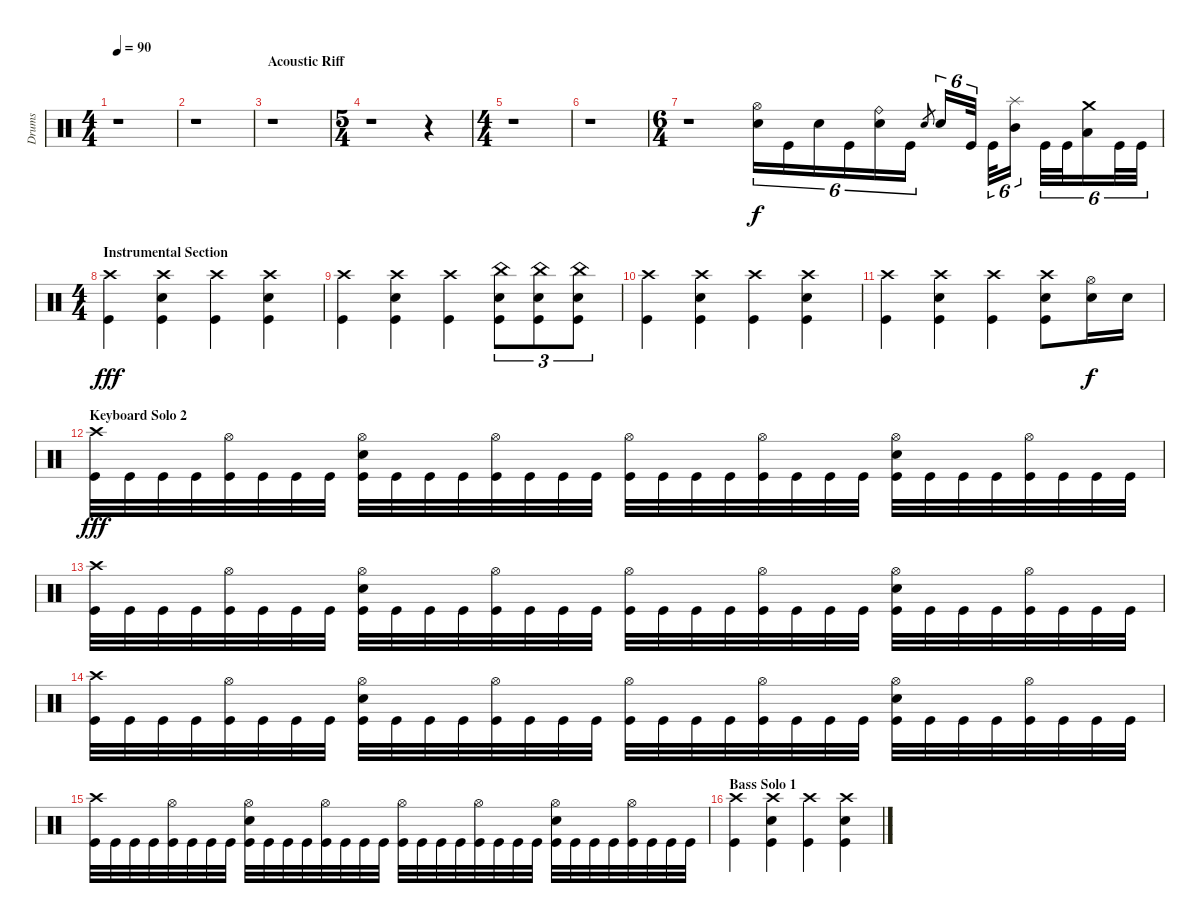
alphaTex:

\track ("Drums" "Drums") {instrument percussion}
\staff {score}
\articulation defaults
\ts (4 4)
\tempo 90
\clef neutral
\ks c
r.1{dy fff} |
r.1 |
\section ("" "Acoustic Riff")
r.1 |
\ts (5 4)
r.1 r.4 |
\ts (4 4)
r.1 |
r.1 |
\ts (6 4)
r.1 ("Hi-Hat (open)" "Electric Snare (hit)").16{tu (6 4) dy f volume 14} "Kick (hit)".16{tu (6 4)} "Electric Snare (hit)".16{tu (6 4)} "Kick (hit)".16{tu (6 4)} ("Ride (bell)" "Electric Snare (hit)").16{tu (6 4)} "Kick (hit)".16{tu (6 4)} "Electric Snare (hit)".8{gr} "Electric Snare (hit)".16{tu (6 4)} "Kick (hit)".32{tu (6 4)} "Kick (hit)".32{tu (6 4)} ("Splash (hit)" "Mid Tom (hit)").16{tu (6 4)} "Kick (hit)".32{tu (6 4)} "Kick (hit)".32{tu (6 4)} ("Crash medium (hit)" "Low Tom (hit)").16{tu (6 4)} "Kick (hit)".32{tu (6 4)} "Kick (hit)".32{tu (6 4)} |
\ts (4 4)
\section ("" "Instrumental Section")
("Crash high (hit)" "Kick (hit)").4{dy fff volume 14} ("Crash high (hit)" "Electric Snare (hit)" "Kick (hit)").4 ("Crash high (hit)" "Kick (hit)").4 ("Crash high (hit)" "Electric Snare (hit)" "Kick (hit)").4 |
("Crash high (hit)" "Kick (hit)").4 ("Crash high (hit)" "Electric Snare (hit)" "Kick (hit)").4 ("Crash high (hit)" "Kick (hit)").4 ("China (hit)" "Electric Snare (hit)" "Kick (hit)").8{tu (3 2)} ("China (hit)" "Electric Snare (hit)" "Kick (hit)").8{tu (3 2)} ("China (hit)" "Electric Snare (hit)" "Kick (hit)").8{tu (3 2)} |
("Crash high (hit)" "Kick (hit)").4 ("Crash high (hit)" "Electric Snare (hit)" "Kick (hit)").4 ("Crash high (hit)" "Kick (hit)").4 ("Crash high (hit)" "Electric Snare (hit)" "Kick (hit)").4 |
("Crash high (hit)" "Kick (hit)").4 ("Crash high (hit)" "Electric Snare (hit)" "Kick (hit)").4 ("Crash high (hit)" "Kick (hit)").4 ("Crash high (hit)" "Electric Snare (hit)" "Kick (hit)").8 ("Hi-Hat (open)" "Electric Snare (hit)").16{dy f} "Electric Snare (hit)".16 |
\section ("" "Keyboard Solo 2")
("Crash high (hit)" "Kick (hit)").32{dy fff} "Kick (hit)".32 "Kick (hit)".32 "Kick (hit)".32 ("Hi-Hat (open)" "Kick (hit)").32 "Kick (hit)".32 "Kick (hit)".32 "Kick (hit)".32 ("Hi-Hat (open)" "Electric Snare (hit)" "Kick (hit)").32 "Kick (hit)".32 "Kick (hit)".32 "Kick (hit)".32 ("Hi-Hat (open)" "Kick (hit)").32 "Kick (hit)".32 "Kick (hit)".32 "Kick (hit)".32 ("Hi-Hat (open)" "Kick (hit)").32 "Kick (hit)".32 "Kick (hit)".32 "Kick (hit)".32 ("Hi-Hat (open)" "Kick (hit)").32 "Kick (hit)".32 "Kick (hit)".32 "Kick (hit)".32 ("Hi-Hat (open)" "Electric Snare (hit)" "Kick (hit)").32 "Kick (hit)".32 "Kick (hit)".32 "Kick (hit)".32 ("Hi-Hat (open)" "Kick (hit)").32 "Kick (hit)".32 "Kick (hit)".32 "Kick (hit)".32 |
("Crash high (hit)" "Kick (hit)").32 "Kick (hit)".32 "Kick (hit)".32 "Kick (hit)".32 ("Hi-Hat (open)" "Kick (hit)").32 "Kick (hit)".32 "Kick (hit)".32 "Kick (hit)".32 ("Hi-Hat (open)" "Electric Snare (hit)" "Kick (hit)").32 "Kick (hit)".32 "Kick (hit)".32 "Kick (hit)".32 ("Hi-Hat (open)" "Kick (hit)").32 "Kick (hit)".32 "Kick (hit)".32 "Kick (hit)".32 ("Hi-Hat (open)" "Kick (hit)").32 "Kick (hit)".32 "Kick (hit)".32 "Kick (hit)".32 ("Hi-Hat (open)" "Kick (hit)").32 "Kick (hit)".32 "Kick (hit)".32 "Kick (hit)".32 ("Hi-Hat (open)" "Electric Snare (hit)" "Kick (hit)").32 "Kick (hit)".32 "Kick (hit)".32 "Kick (hit)".32 ("Hi-Hat (open)" "Kick (hit)").32 "Kick (hit)".32 "Kick (hit)".32 "Kick (hit)".32 |
("Crash high (hit)" "Kick (hit)").32 "Kick (hit)".32 "Kick (hit)".32 "Kick (hit)".32 ("Hi-Hat (open)" "Kick (hit)").32 "Kick (hit)".32 "Kick (hit)".32 "Kick (hit)".32 ("Hi-Hat (open)" "Electric Snare (hit)" "Kick (hit)").32 "Kick (hit)".32 "Kick (hit)".32 "Kick (hit)".32 ("Hi-Hat (open)" "Kick (hit)").32 "Kick (hit)".32 "Kick (hit)".32 "Kick (hit)".32 ("Hi-Hat (open)" "Kick (hit)").32 "Kick (hit)".32 "Kick (hit)".32 "Kick (hit)".32 ("Hi-Hat (open)" "Kick (hit)").32 "Kick (hit)".32 "Kick (hit)".32 "Kick (hit)".32 ("Hi-Hat (open)" "Electric Snare (hit)" "Kick (hit)").32 "Kick (hit)".32 "Kick (hit)".32 "Kick (hit)".32 ("Hi-Hat (open)" "Kick (hit)").32 "Kick (hit)".32 "Kick (hit)".32 "Kick (hit)".32 |
("Crash high (hit)" "Kick (hit)").32 "Kick (hit)".32 "Kick (hit)".32 "Kick (hit)".32 ("Hi-Hat (open)" "Kick (hit)").32 "Kick (hit)".32 "Kick (hit)".32 "Kick (hit)".32 ("Hi-Hat (open)" "Electric Snare (hit)" "Kick (hit)").32 "Kick (hit)".32 "Kick (hit)".32 "Kick (hit)".32 ("Hi-Hat (open)" "Kick (hit)").32 "Kick (hit)".32 "Kick (hit)".32 "Kick (hit)".32 ("Hi-Hat (open)" "Kick (hit)").32 "Kick (hit)".32 "Kick (hit)".32 "Kick (hit)".32 ("Hi-Hat (open)" "Kick (hit)").32 "Kick (hit)".32 "Kick (hit)".32 "Kick (hit)".32 ("Hi-Hat (open)" "Electric Snare (hit)" "Kick (hit)").32 "Kick (hit)".32 "Kick (hit)".32 "Kick (hit)".32 ("Hi-Hat (open)" "Kick (hit)").32 "Kick (hit)".32 "Kick (hit)".32 "Kick (hit)".32 |
\section ("" "Bass Solo 1")
("Crash high (hit)" "Kick (hit)").4 ("Crash high (hit)" "Electric Snare (hit)" "Kick (hit)").4 ("Crash high (hit)" "Kick (hit)").4 ("Crash high (hit)" "Electric Snare (hit)" "Kick (hit)").4
